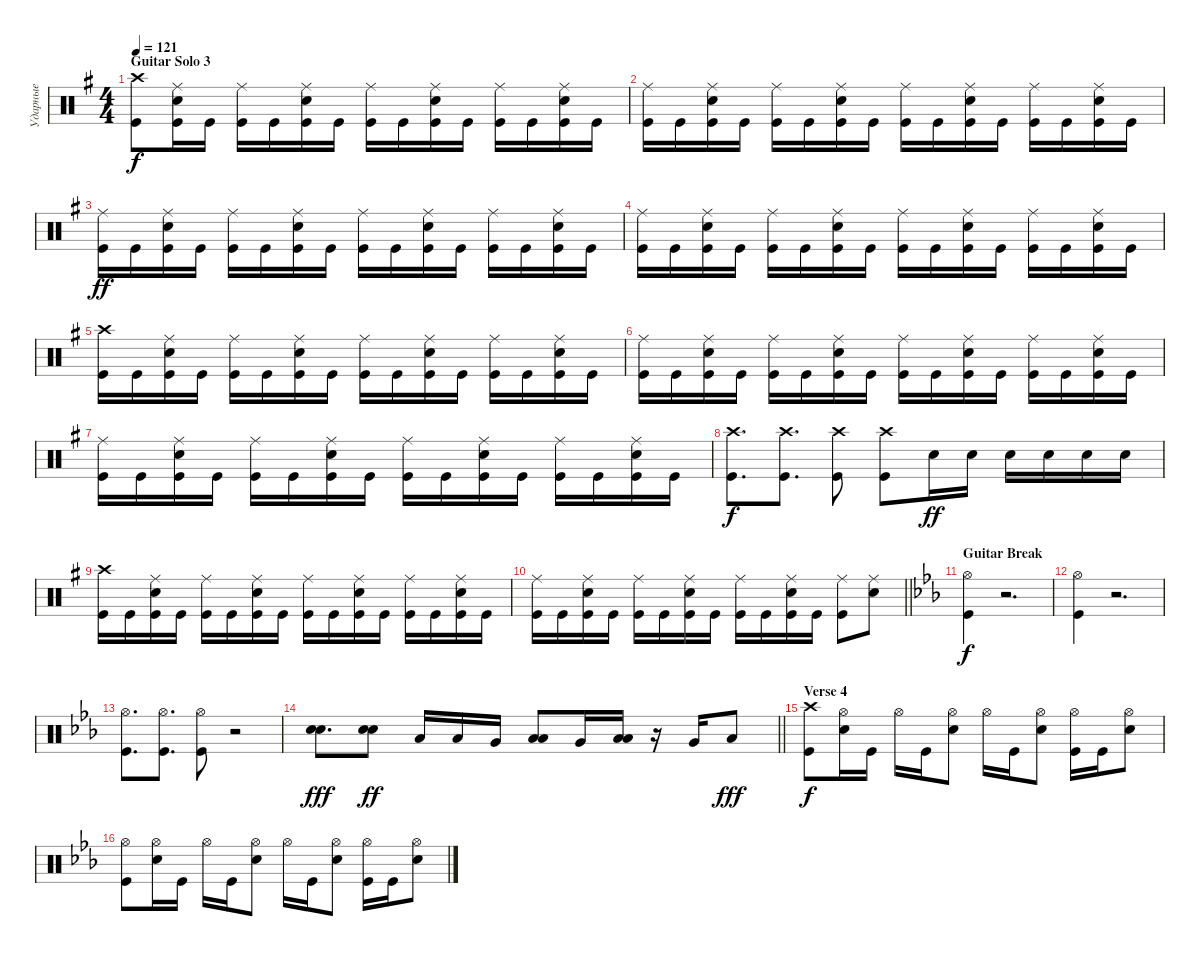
\track ("Ударные" "Ударные") {instrument percussion}
\staff {score}
\articulation defaults
\ts (4 4)
\section ("" "Guitar Solo 3")
\tempo 121
\clef neutral
\ks eminor
("Kick (hit)" "Crash high (hit)").8{dy f} ("Kick (hit)" "Snare (hit) 2" "Ride (middle)").16 "Kick (hit)".16 ("Kick (hit)" "Ride (middle)").16 "Kick (hit)".16 ("Kick (hit)" "Snare (hit) 2" "Ride (middle)").16 "Kick (hit)".16 ("Kick (hit)" "Ride (middle)").16 "Kick (hit)".16 ("Kick (hit)" "Snare (hit) 2" "Ride (middle)").16 "Kick (hit)".16 ("Kick (hit)" "Ride (middle)").16 "Kick (hit)".16 ("Kick (hit)" "Snare (hit) 2" "Ride (middle)").16 "Kick (hit)".16 |
("Kick (hit)" "Ride (middle)").16 "Kick (hit)".16 ("Kick (hit)" "Snare (hit) 2" "Ride (middle)").16 "Kick (hit)".16 ("Kick (hit)" "Ride (middle)").16 "Kick (hit)".16 ("Kick (hit)" "Snare (hit) 2" "Ride (middle)").16 "Kick (hit)".16 ("Kick (hit)" "Ride (middle)").16 "Kick (hit)".16 ("Kick (hit)" "Snare (hit) 2" "Ride (middle)").16 "Kick (hit)".16 ("Kick (hit)" "Ride (middle)").16 "Kick (hit)".16 ("Kick (hit)" "Snare (hit) 2" "Ride (middle)").16 "Kick (hit)".16 |
("Kick (hit)" "Ride (middle)").16{dy ff} "Kick (hit)".16 ("Kick (hit)" "Snare (hit) 2" "Ride (middle)").16 "Kick (hit)".16 ("Kick (hit)" "Ride (middle)").16 "Kick (hit)".16 ("Kick (hit)" "Snare (hit) 2" "Ride (middle)").16 "Kick (hit)".16 ("Kick (hit)" "Ride (middle)").16 "Kick (hit)".16 ("Kick (hit)" "Snare (hit) 2" "Ride (middle)").16 "Kick (hit)".16 ("Kick (hit)" "Ride (middle)").16 "Kick (hit)".16 ("Kick (hit)" "Snare (hit) 2" "Ride (middle)").16 "Kick (hit)".16 |
("Kick (hit)" "Ride (middle)").16 "Kick (hit)".16 ("Kick (hit)" "Snare (hit) 2" "Ride (middle)").16 "Kick (hit)".16 ("Kick (hit)" "Ride (middle)").16 "Kick (hit)".16 ("Kick (hit)" "Snare (hit) 2" "Ride (middle)").16 "Kick (hit)".16 ("Kick (hit)" "Ride (middle)").16 "Kick (hit)".16 ("Kick (hit)" "Snare (hit) 2" "Ride (middle)").16 "Kick (hit)".16 ("Kick (hit)" "Ride (middle)").16 "Kick (hit)".16 ("Kick (hit)" "Snare (hit) 2" "Ride (middle)").16 "Kick (hit)".16 |
("Kick (hit)" "Crash high (hit)").16 "Kick (hit)".16 ("Kick (hit)" "Snare (hit) 2" "Ride (middle)").16 "Kick (hit)".16 ("Kick (hit)" "Ride (middle)").16 "Kick (hit)".16 ("Kick (hit)" "Snare (hit) 2" "Ride (middle)").16 "Kick (hit)".16 ("Kick (hit)" "Ride (middle)").16 "Kick (hit)".16 ("Kick (hit)" "Snare (hit) 2" "Ride (middle)").16 "Kick (hit)".16 ("Kick (hit)" "Ride (middle)").16 "Kick (hit)".16 ("Kick (hit)" "Snare (hit) 2" "Ride (middle)").16 "Kick (hit)".16 |
("Kick (hit)" "Ride (middle)").16 "Kick (hit)".16 ("Kick (hit)" "Snare (hit) 2" "Ride (middle)").16 "Kick (hit)".16 ("Kick (hit)" "Ride (middle)").16 "Kick (hit)".16 ("Kick (hit)" "Snare (hit) 2" "Ride (middle)").16 "Kick (hit)".16 ("Kick (hit)" "Ride (middle)").16 "Kick (hit)".16 ("Kick (hit)" "Snare (hit) 2" "Ride (middle)").16 "Kick (hit)".16 ("Kick (hit)" "Ride (middle)").16 "Kick (hit)".16 ("Kick (hit)" "Snare (hit) 2" "Ride (middle)").16 "Kick (hit)".16 |
("Kick (hit)" "Ride (middle)").16 "Kick (hit)".16 ("Kick (hit)" "Snare (hit) 2" "Ride (middle)").16 "Kick (hit)".16 ("Kick (hit)" "Ride (middle)").16 "Kick (hit)".16 ("Kick (hit)" "Snare (hit) 2" "Ride (middle)").16 "Kick (hit)".16 ("Kick (hit)" "Ride (middle)").16 "Kick (hit)".16 ("Kick (hit)" "Snare (hit) 2" "Ride (middle)").16 "Kick (hit)".16 ("Kick (hit)" "Ride (middle)").16 "Kick (hit)".16 ("Kick (hit)" "Snare (hit) 2" "Ride (middle)").16 "Kick (hit)".16 |
("Kick (hit)" "Crash high (hit)").8{d dy f} ("Kick (hit)" "Crash high (hit)").8{d} ("Kick (hit)" "Crash high (hit)").8 ("Kick (hit)" "Crash high (hit)").8 "Snare (hit) 2".16{dy ff} "Snare (hit) 2".16 "Snare (hit) 2".16 "Snare (hit) 2".16 "Snare (hit) 2".16 "Snare (hit) 2".16 |
("Kick (hit)" "Crash high (hit)").16 "Kick (hit)".16 ("Kick (hit)" "Snare (hit) 2" "Ride (middle)").16 "Kick (hit)".16 ("Kick (hit)" "Ride (middle)").16 "Kick (hit)".16 ("Kick (hit)" "Snare (hit) 2" "Ride (middle)").16 "Kick (hit)".16 ("Kick (hit)" "Ride (middle)").16 "Kick (hit)".16 ("Kick (hit)" "Snare (hit) 2" "Ride (middle)").16 "Kick (hit)".16 ("Kick (hit)" "Ride (middle)").16 "Kick (hit)".16 ("Kick (hit)" "Snare (hit) 2" "Ride (middle)").16 "Kick (hit)".16 |
\barLineRight lightlight
("Kick (hit)" "Ride (middle)").16 "Kick (hit)".16 ("Kick (hit)" "Snare (hit) 2" "Ride (middle)").16 "Kick (hit)".16 ("Kick (hit)" "Ride (middle)").16 "Kick (hit)".16 ("Kick (hit)" "Snare (hit) 2" "Ride (middle)").16 "Kick (hit)".16 ("Kick (hit)" "Ride (middle)").16 "Kick (hit)".16 ("Kick (hit)" "Snare (hit) 2" "Ride (middle)").16 "Kick (hit)".16 ("Kick (hit)" "Ride (middle)").8 ("Snare (hit) 2" "Ride (middle)").8 |
\section ("" "Guitar Break")
\ks cminor
("Kick (hit)" "Hi-Hat (open)").4{dy f} r.2{d} |
("Kick (hit)" "Hi-Hat (open)").4 r.2{d} |
("Kick (hit)" "Hi-Hat (open)").8{d} ("Kick (hit)" "Hi-Hat (open)").8{d} ("Kick (hit)" "Hi-Hat (open)").8 r.2 |
\barLineRight lightlight
("Snare (hit) 2" "Snare (hit) 2").8{d bd 240 dy fff} ("Snare (hit) 2" "Snare (hit) 2").8{bd 240 dy ff} "Low Tom (hit)".16 "Low Tom (hit)".16 "Very Low Tom (hit)".16 ("Low Tom (hit)" "Low Tom (hit)").8{bd 240} "Very Low Tom (hit)".16 ("Low Tom (hit)" "Low Tom (hit)").16{bd 240} r.16 "Very Low Tom (hit)".16 "Low Tom (hit)".8{dy fff} |
\section ("" "Verse 4")
("Kick (hit)" "Crash high (hit)").8{dy f} ("Snare (hit) 2" "Hi-Hat (open)").16 "Kick (hit)".16 "Hi-Hat (open)".16 "Kick (hit)".16 ("Snare (hit) 2" "Hi-Hat (open)").8 "Hi-Hat (open)".16 "Kick (hit)".16 ("Snare (hit) 2" "Hi-Hat (open)").8 ("Kick (hit)" "Hi-Hat (open)").16 "Kick (hit)".16 ("Snare (hit) 2" "Hi-Hat (open)").8 |
("Kick (hit)" "Hi-Hat (open)").8 ("Snare (hit) 2" "Hi-Hat (open)").16 "Kick (hit)".16 "Hi-Hat (open)".16 "Kick (hit)".16 ("Snare (hit) 2" "Hi-Hat (open)").8 "Hi-Hat (open)".16 "Kick (hit)".16 ("Snare (hit) 2" "Hi-Hat (open)").8 ("Kick (hit)" "Hi-Hat (open)").16 "Kick (hit)".16 ("Snare (hit) 2" "Hi-Hat (open)").8
